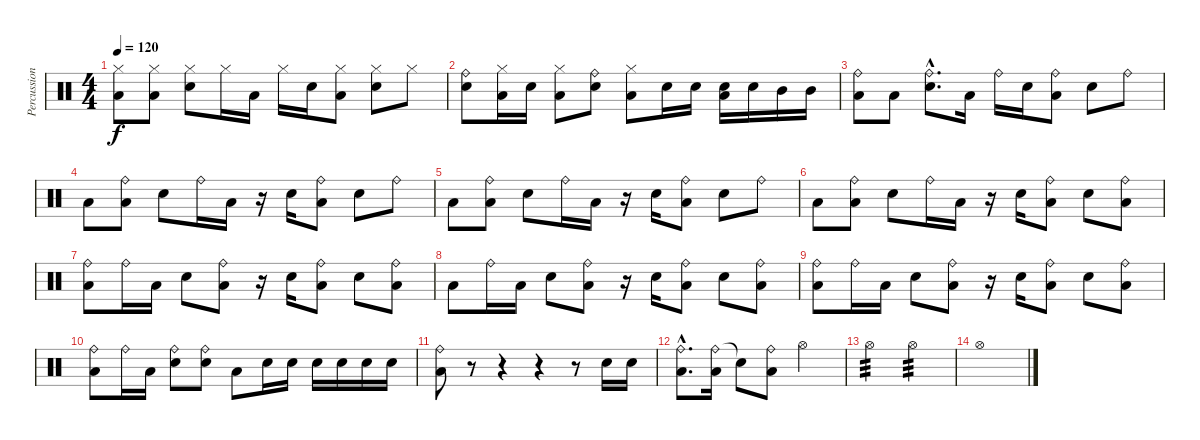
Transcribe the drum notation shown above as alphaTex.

\track ("Percussion" "Percussion") {instrument percussion}
\staff {score}
\articulation defaults
\ts (4 4)
\tempo 120
\clef neutral
\ks c
("Hi-Hat (closed)" "Low Floor Tom (hit)").8{dy f} ("Hi-Hat (closed)" "Low Floor Tom (hit)").8 ("Hi-Hat (closed)" "Snare (hit) 2").8 "Hi-Hat (closed)".16 "Low Floor Tom (hit)".16 "Hi-Hat (closed)".16 "Snare (hit) 2".16 ("Hi-Hat (closed)" "Low Floor Tom (hit)").8 ("Hi-Hat (closed)" "Snare (hit) 2").8 "Hi-Hat (closed)".8 |
("Ride (bell)" "Snare (hit) 2").8 ("Hi-Hat (closed)" "Low Floor Tom (hit)").16 "Snare (hit) 2".16 ("Hi-Hat (closed)" "Low Floor Tom (hit)").8 ("Ride (bell)" "Snare (hit) 2").8 ("Hi-Hat (closed)" "Low Floor Tom (hit)").8 "Snare (hit) 2".16 "Snare (hit) 2".16 ("Snare (hit) 2" "Low Floor Tom (hit)").16 "Snare (hit) 2".16 "Mid Tom (hit)".16 "Mid Tom (hit)".16 |
("Ride (bell)" "Low Floor Tom (hit)").8 "Low Floor Tom (hit)".8 ("Ride (bell)"{hac} "Snare (hit) 2"{hac}).8{d} "Low Floor Tom (hit)".16 "Ride (bell)".16 "Snare (hit) 2".16 ("Ride (bell)" "Low Floor Tom (hit)").8 "Snare (hit) 2".8 "Ride (bell)".8 |
"Low Floor Tom (hit)".8 ("Ride (bell)" "Low Floor Tom (hit)").8 "Snare (hit) 2".8 "Ride (bell)".16 "Low Floor Tom (hit)".16 r.16 "Snare (hit) 2".16 ("Ride (bell)" "Low Floor Tom (hit)").8 "Snare (hit) 2".8 "Ride (bell)".8 |
"Low Floor Tom (hit)".8 ("Ride (bell)" "Low Floor Tom (hit)").8 "Snare (hit) 2".8 "Ride (bell)".16 "Low Floor Tom (hit)".16 r.16 "Snare (hit) 2".16 ("Ride (bell)" "Low Floor Tom (hit)").8 "Snare (hit) 2".8 "Ride (bell)".8 |
"Low Floor Tom (hit)".8 ("Ride (bell)" "Low Floor Tom (hit)").8 "Snare (hit) 2".8 "Ride (bell)".16 "Low Floor Tom (hit)".16 r.16 "Snare (hit) 2".16 ("Ride (bell)" "Low Floor Tom (hit)").8 "Snare (hit) 2".8 ("Ride (bell)" "Low Floor Tom (hit)").8 |
("Ride (bell)" "Low Floor Tom (hit)").8 "Ride (bell)".16 "Low Floor Tom (hit)".16 "Snare (hit) 2".8 ("Ride (bell)" "Low Floor Tom (hit)").8 r.16 "Snare (hit) 2".16 ("Ride (bell)" "Low Floor Tom (hit)").8 "Snare (hit) 2".8 ("Ride (bell)" "Low Floor Tom (hit)").8 |
"Low Floor Tom (hit)".8 "Ride (bell)".16 "Low Floor Tom (hit)".16 "Snare (hit) 2".8 ("Ride (bell)" "Low Floor Tom (hit)").8 r.16 "Snare (hit) 2".16 ("Ride (bell)" "Low Floor Tom (hit)").8 "Snare (hit) 2".8 ("Ride (bell)" "Low Floor Tom (hit)").8 |
("Ride (bell)" "Low Floor Tom (hit)").8 "Ride (bell)".16 "Low Floor Tom (hit)".16 "Snare (hit) 2".8 ("Ride (bell)" "Low Floor Tom (hit)").8 r.16 "Snare (hit) 2".16 ("Ride (bell)" "Low Floor Tom (hit)").8 "Snare (hit) 2".8 ("Ride (bell)" "Low Floor Tom (hit)").8 |
("Ride (bell)" "Low Floor Tom (hit)").8 "Ride (bell)".16 "Low Floor Tom (hit)".16 ("Ride (bell)" "Snare (hit) 2").8 ("Ride (bell)" "Snare (hit) 2").8 "Low Floor Tom (hit)".8 "Snare (hit) 2".16 "Snare (hit) 2".16 "Snare (hit) 2".16 "Snare (hit) 2".16 "Snare (hit) 2".16 "Snare (hit) 2".16 |
("Ride (bell)" "Low Floor Tom (hit)").8 r.8 r.4 r.4 r.8 "Snare (hit) 2".16 "Snare (hit) 2".16 |
("Ride (bell)"{hac} "Low Floor Tom (hit)"{hac}).8{d} ("Ride (bell)" "Low Floor Tom (hit)").16 "Snare (hit)"{t}.8 ("Ride (bell)" "Low Floor Tom (hit)").8 "Hi-Hat (open)".2 |
"Hi-Hat (open)".2{tp 3} "Hi-Hat (open)".2{tp 3} |
"Hi-Hat (open)".1
